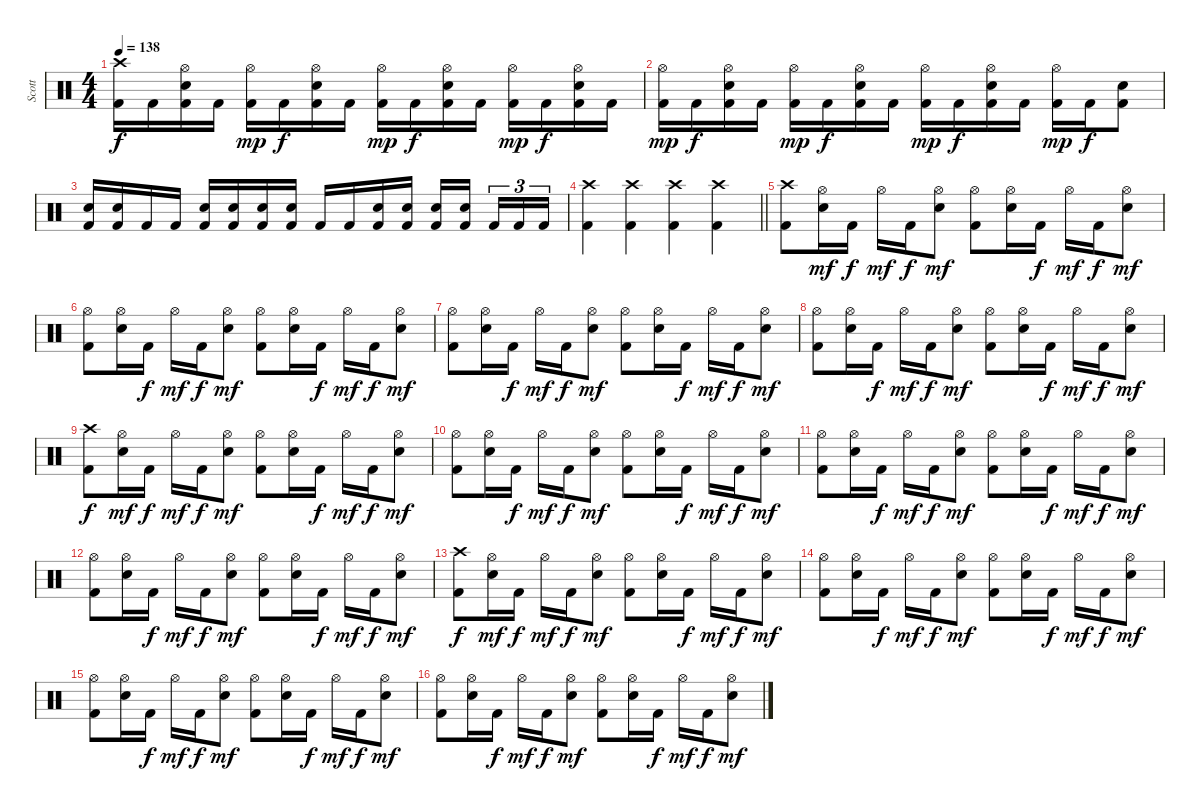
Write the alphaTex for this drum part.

\track ("Scott" "Scott") {instrument percussion}
\staff {score}
\articulation defaults
\ts (4 4)
\tempo 138
\clef neutral
\ks c
("Crash high (hit)" "Kick (hit) 2").16{dy f} "Kick (hit) 2".16 ("Hi-Hat (open)" "Electric Snare (hit)" "Kick (hit) 2").16 "Kick (hit) 2".16 ("Hi-Hat (open)" "Kick (hit) 2").16{dy mp} "Kick (hit) 2".16{dy f} ("Hi-Hat (open)" "Electric Snare (hit)" "Kick (hit) 2").16 "Kick (hit) 2".16 ("Hi-Hat (open)" "Kick (hit) 2").16{dy mp} "Kick (hit) 2".16{dy f} ("Hi-Hat (open)" "Electric Snare (hit)" "Kick (hit) 2").16 "Kick (hit) 2".16 ("Hi-Hat (open)" "Kick (hit) 2").16{dy mp} "Kick (hit) 2".16{dy f} ("Hi-Hat (open)" "Electric Snare (hit)" "Kick (hit) 2").16 "Kick (hit) 2".16 |
("Hi-Hat (open)" "Kick (hit) 2").16{dy mp} "Kick (hit) 2".16{dy f} ("Hi-Hat (open)" "Electric Snare (hit)" "Kick (hit) 2").16 "Kick (hit) 2".16 ("Hi-Hat (open)" "Kick (hit) 2").16{dy mp} "Kick (hit) 2".16{dy f} ("Hi-Hat (open)" "Electric Snare (hit)" "Kick (hit) 2").16 "Kick (hit) 2".16 ("Hi-Hat (open)" "Kick (hit) 2").16{dy mp} "Kick (hit) 2".16{dy f} ("Hi-Hat (open)" "Electric Snare (hit)" "Kick (hit) 2").16 "Kick (hit) 2".16 ("Hi-Hat (open)" "Kick (hit) 2").16{dy mp} "Kick (hit) 2".16{dy f} ("Electric Snare (hit)" "Kick (hit) 2").8 |
("Electric Snare (hit)" "Kick (hit) 2").16 ("Electric Snare (hit)" "Kick (hit) 2").16 "Kick (hit) 2".16 "Kick (hit) 2".16 ("Electric Snare (hit)" "Kick (hit) 2").16 ("Electric Snare (hit)" "Kick (hit) 2").16 ("Electric Snare (hit)" "Kick (hit) 2").16 ("Electric Snare (hit)" "Kick (hit) 2").16 "Kick (hit) 2".16 "Kick (hit) 2".16 ("Electric Snare (hit)" "Kick (hit) 2").16 ("Electric Snare (hit)" "Kick (hit) 2").16 ("Electric Snare (hit)" "Kick (hit) 2").16 ("Electric Snare (hit)" "Kick (hit) 2").16 "Kick (hit) 2".16{tu (3 2)} "Kick (hit) 2".16{tu (3 2)} "Kick (hit) 2".16{tu (3 2)} |
\barLineRight lightlight
("Crash high (hit)" "Kick (hit) 2").4 ("Crash high (hit)" "Kick (hit) 2").4 ("Crash high (hit)" "Kick (hit) 2").4 ("Crash high (hit)" "Kick (hit) 2").4 |
("Crash high (hit)" "Kick (hit) 2").8 ("Hi-Hat (open)" "Electric Snare (hit)").16{dy mf} "Kick (hit) 2".16{dy f} "Hi-Hat (open)".16{dy mf} "Kick (hit) 2".16{dy f} ("Hi-Hat (open)" "Electric Snare (hit)").8{dy mf} ("Hi-Hat (open)" "Kick (hit) 2").8 ("Hi-Hat (open)" "Electric Snare (hit)").16 "Kick (hit) 2".16{dy f} "Hi-Hat (open)".16{dy mf} "Kick (hit) 2".16{dy f} ("Hi-Hat (open)" "Electric Snare (hit)").8{dy mf} |
("Hi-Hat (open)" "Kick (hit) 2").8 ("Hi-Hat (open)" "Electric Snare (hit)").16 "Kick (hit) 2".16{dy f} "Hi-Hat (open)".16{dy mf} "Kick (hit) 2".16{dy f} ("Hi-Hat (open)" "Electric Snare (hit)").8{dy mf} ("Hi-Hat (open)" "Kick (hit) 2").8 ("Hi-Hat (open)" "Electric Snare (hit)").16 "Kick (hit) 2".16{dy f} "Hi-Hat (open)".16{dy mf} "Kick (hit) 2".16{dy f} ("Hi-Hat (open)" "Electric Snare (hit)").8{dy mf} |
("Hi-Hat (open)" "Kick (hit) 2").8 ("Hi-Hat (open)" "Electric Snare (hit)").16 "Kick (hit) 2".16{dy f} "Hi-Hat (open)".16{dy mf} "Kick (hit) 2".16{dy f} ("Hi-Hat (open)" "Electric Snare (hit)").8{dy mf} ("Hi-Hat (open)" "Kick (hit) 2").8 ("Hi-Hat (open)" "Electric Snare (hit)").16 "Kick (hit) 2".16{dy f} "Hi-Hat (open)".16{dy mf} "Kick (hit) 2".16{dy f} ("Hi-Hat (open)" "Electric Snare (hit)").8{dy mf} |
("Hi-Hat (open)" "Kick (hit) 2").8 ("Hi-Hat (open)" "Electric Snare (hit)").16 "Kick (hit) 2".16{dy f} "Hi-Hat (open)".16{dy mf} "Kick (hit) 2".16{dy f} ("Hi-Hat (open)" "Electric Snare (hit)").8{dy mf} ("Hi-Hat (open)" "Kick (hit) 2").8 ("Hi-Hat (open)" "Electric Snare (hit)").16 "Kick (hit) 2".16{dy f} "Hi-Hat (open)".16{dy mf} "Kick (hit) 2".16{dy f} ("Hi-Hat (open)" "Electric Snare (hit)").8{dy mf} |
("Crash high (hit)" "Kick (hit) 2").8{dy f} ("Hi-Hat (open)" "Electric Snare (hit)").16{dy mf} "Kick (hit) 2".16{dy f} "Hi-Hat (open)".16{dy mf} "Kick (hit) 2".16{dy f} ("Hi-Hat (open)" "Electric Snare (hit)").8{dy mf} ("Hi-Hat (open)" "Kick (hit) 2").8 ("Hi-Hat (open)" "Electric Snare (hit)").16 "Kick (hit) 2".16{dy f} "Hi-Hat (open)".16{dy mf} "Kick (hit) 2".16{dy f} ("Hi-Hat (open)" "Electric Snare (hit)").8{dy mf} |
("Hi-Hat (open)" "Kick (hit) 2").8 ("Hi-Hat (open)" "Electric Snare (hit)").16 "Kick (hit) 2".16{dy f} "Hi-Hat (open)".16{dy mf} "Kick (hit) 2".16{dy f} ("Hi-Hat (open)" "Electric Snare (hit)").8{dy mf} ("Hi-Hat (open)" "Kick (hit) 2").8 ("Hi-Hat (open)" "Electric Snare (hit)").16 "Kick (hit) 2".16{dy f} "Hi-Hat (open)".16{dy mf} "Kick (hit) 2".16{dy f} ("Hi-Hat (open)" "Electric Snare (hit)").8{dy mf} |
("Hi-Hat (open)" "Kick (hit) 2").8 ("Hi-Hat (open)" "Electric Snare (hit)").16 "Kick (hit) 2".16{dy f} "Hi-Hat (open)".16{dy mf} "Kick (hit) 2".16{dy f} ("Hi-Hat (open)" "Electric Snare (hit)").8{dy mf} ("Hi-Hat (open)" "Kick (hit) 2").8 ("Hi-Hat (open)" "Electric Snare (hit)").16 "Kick (hit) 2".16{dy f} "Hi-Hat (open)".16{dy mf} "Kick (hit) 2".16{dy f} ("Hi-Hat (open)" "Electric Snare (hit)").8{dy mf} |
("Hi-Hat (open)" "Kick (hit) 2").8 ("Hi-Hat (open)" "Electric Snare (hit)").16 "Kick (hit) 2".16{dy f} "Hi-Hat (open)".16{dy mf} "Kick (hit) 2".16{dy f} ("Hi-Hat (open)" "Electric Snare (hit)").8{dy mf} ("Hi-Hat (open)" "Kick (hit) 2").8 ("Hi-Hat (open)" "Electric Snare (hit)").16 "Kick (hit) 2".16{dy f} "Hi-Hat (open)".16{dy mf} "Kick (hit) 2".16{dy f} ("Hi-Hat (open)" "Electric Snare (hit)").8{dy mf} |
("Crash high (hit)" "Kick (hit) 2").8{dy f} ("Hi-Hat (open)" "Electric Snare (hit)").16{dy mf} "Kick (hit) 2".16{dy f} "Hi-Hat (open)".16{dy mf} "Kick (hit) 2".16{dy f} ("Hi-Hat (open)" "Electric Snare (hit)").8{dy mf} ("Hi-Hat (open)" "Kick (hit) 2").8 ("Hi-Hat (open)" "Electric Snare (hit)").16 "Kick (hit) 2".16{dy f} "Hi-Hat (open)".16{dy mf} "Kick (hit) 2".16{dy f} ("Hi-Hat (open)" "Electric Snare (hit)").8{dy mf} |
("Hi-Hat (open)" "Kick (hit) 2").8 ("Hi-Hat (open)" "Electric Snare (hit)").16 "Kick (hit) 2".16{dy f} "Hi-Hat (open)".16{dy mf} "Kick (hit) 2".16{dy f} ("Hi-Hat (open)" "Electric Snare (hit)").8{dy mf} ("Hi-Hat (open)" "Kick (hit) 2").8 ("Hi-Hat (open)" "Electric Snare (hit)").16 "Kick (hit) 2".16{dy f} "Hi-Hat (open)".16{dy mf} "Kick (hit) 2".16{dy f} ("Hi-Hat (open)" "Electric Snare (hit)").8{dy mf} |
("Hi-Hat (open)" "Kick (hit) 2").8 ("Hi-Hat (open)" "Electric Snare (hit)").16 "Kick (hit) 2".16{dy f} "Hi-Hat (open)".16{dy mf} "Kick (hit) 2".16{dy f} ("Hi-Hat (open)" "Electric Snare (hit)").8{dy mf} ("Hi-Hat (open)" "Kick (hit) 2").8 ("Hi-Hat (open)" "Electric Snare (hit)").16 "Kick (hit) 2".16{dy f} "Hi-Hat (open)".16{dy mf} "Kick (hit) 2".16{dy f} ("Hi-Hat (open)" "Electric Snare (hit)").8{dy mf} |
("Hi-Hat (open)" "Kick (hit) 2").8 ("Hi-Hat (open)" "Electric Snare (hit)").16 "Kick (hit) 2".16{dy f} "Hi-Hat (open)".16{dy mf} "Kick (hit) 2".16{dy f} ("Hi-Hat (open)" "Electric Snare (hit)").8{dy mf} ("Hi-Hat (open)" "Kick (hit) 2").8 ("Hi-Hat (open)" "Electric Snare (hit)").16 "Kick (hit) 2".16{dy f} "Hi-Hat (open)".16{dy mf} "Kick (hit) 2".16{dy f} ("Hi-Hat (open)" "Electric Snare (hit)").8{dy mf}
